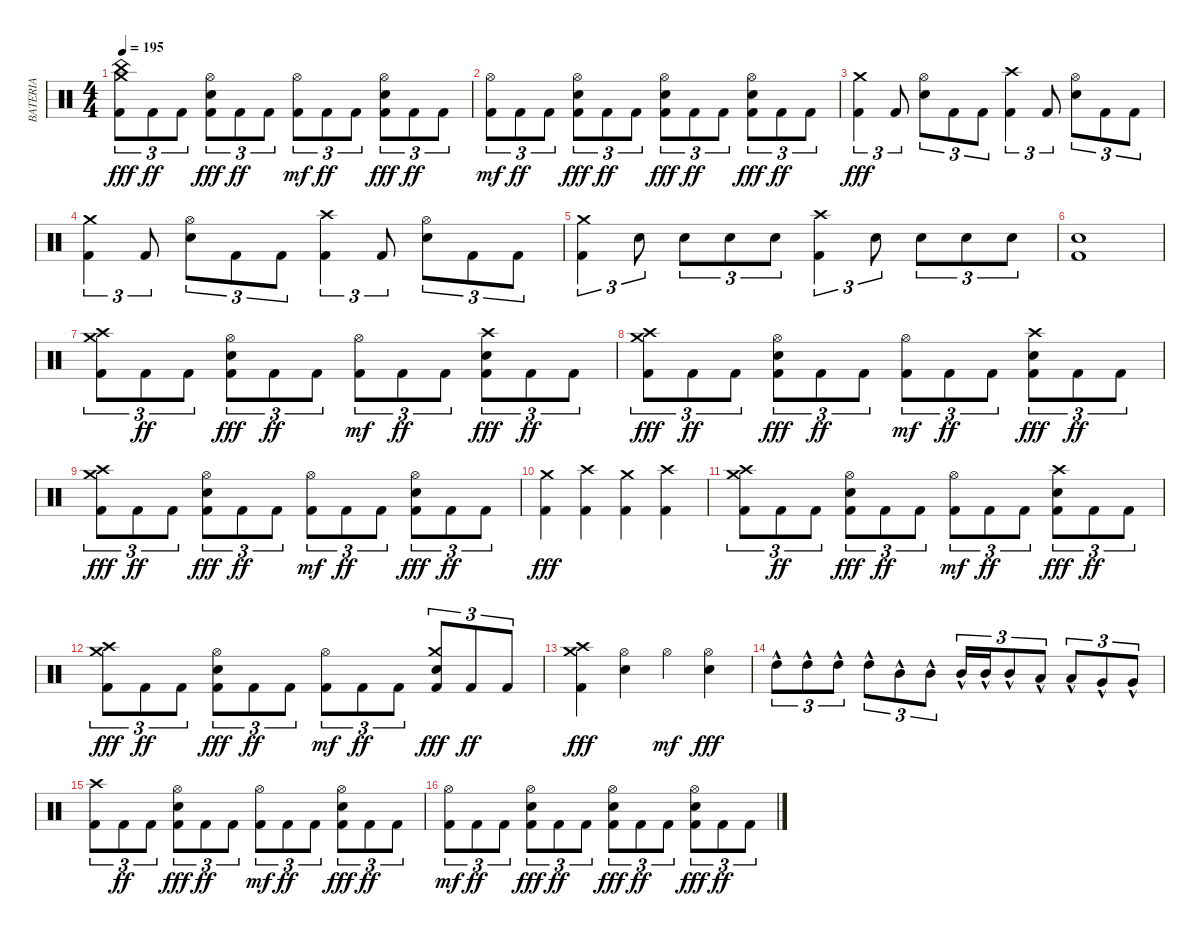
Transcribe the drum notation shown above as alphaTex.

\track ("BATERIA" "BATERIA") {instrument percussion}
\staff
\articulation defaults
\ts (4 4)
\tempo 195
\clef neutral
\ks c
("Kick (hit) 2" "Crash medium (hit)" "China (hit)").8{tu (3 2) dy fff} "Kick (hit) 2".8{tu (3 2) dy ff} "Kick (hit) 2".8{tu (3 2)} ("Kick (hit) 2" "Electric Snare (hit)" "Hi-Hat (open)").8{tu (3 2) dy fff} "Kick (hit) 2".8{tu (3 2) dy ff} "Kick (hit) 2".8{tu (3 2)} ("Kick (hit) 2" "Hi-Hat (open)").8{tu (3 2) dy mf} "Kick (hit) 2".8{tu (3 2) dy ff} "Kick (hit) 2".8{tu (3 2)} ("Kick (hit) 2" "Electric Snare (hit)" "Hi-Hat (open)").8{tu (3 2) dy fff} "Kick (hit) 2".8{tu (3 2) dy ff} "Kick (hit) 2".8{tu (3 2)} |
("Kick (hit) 2" "Hi-Hat (open)").8{tu (3 2) dy mf} "Kick (hit) 2".8{tu (3 2) dy ff} "Kick (hit) 2".8{tu (3 2)} ("Kick (hit) 2" "Electric Snare (hit)" "Hi-Hat (open)").8{tu (3 2) dy fff} "Kick (hit) 2".8{tu (3 2) dy ff} "Kick (hit) 2".8{tu (3 2)} ("Kick (hit) 2" "Electric Snare (hit)" "Hi-Hat (open)").8{tu (3 2) dy fff} "Kick (hit) 2".8{tu (3 2) dy ff} "Kick (hit) 2".8{tu (3 2)} ("Kick (hit) 2" "Electric Snare (hit)" "Hi-Hat (open)").8{tu (3 2) dy fff} "Kick (hit) 2".8{tu (3 2) dy ff} "Kick (hit) 2".8{tu (3 2)} |
("Kick (hit) 2" "Crash medium (hit)").4{tu (3 2) dy fff} "Kick (hit) 2".8{tu (3 2)} ("Electric Snare (hit)" "Hi-Hat (open)").8{tu (3 2)} "Kick (hit) 2".8{tu (3 2)} "Kick (hit) 2".8{tu (3 2)} ("Kick (hit) 2" "Crash high (hit)").4{tu (3 2)} "Kick (hit) 2".8{tu (3 2)} ("Electric Snare (hit)" "Hi-Hat (open)").8{tu (3 2)} "Kick (hit) 2".8{tu (3 2)} "Kick (hit) 2".8{tu (3 2)} |
("Kick (hit) 2" "Crash medium (hit)").4{tu (3 2)} "Kick (hit) 2".8{tu (3 2)} ("Electric Snare (hit)" "Hi-Hat (open)").8{tu (3 2)} "Kick (hit) 2".8{tu (3 2)} "Kick (hit) 2".8{tu (3 2)} ("Kick (hit) 2" "Crash high (hit)").4{tu (3 2)} "Kick (hit) 2".8{tu (3 2)} ("Electric Snare (hit)" "Hi-Hat (open)").8{tu (3 2)} "Kick (hit) 2".8{tu (3 2)} "Kick (hit) 2".8{tu (3 2)} |
("Kick (hit) 2" "Crash medium (hit)").4{tu (3 2)} "Electric Snare (hit)".8{tu (3 2)} "Electric Snare (hit)".8{tu (3 2)} "Electric Snare (hit)".8{tu (3 2)} "Electric Snare (hit)".8{tu (3 2)} ("Kick (hit) 2" "Crash high (hit)").4{tu (3 2)} "Electric Snare (hit)".8{tu (3 2)} "Electric Snare (hit)".8{tu (3 2)} "Electric Snare (hit)".8{tu (3 2)} "Electric Snare (hit)".8{tu (3 2)} |
("Kick (hit) 2" "Electric Snare (hit)").1 |
("Kick (hit) 2" "Crash medium (hit)" "Crash high (hit)").8{tu (3 2)} "Kick (hit) 2".8{tu (3 2) dy ff} "Kick (hit) 2".8{tu (3 2)} ("Kick (hit) 2" "Electric Snare (hit)" "Hi-Hat (open)").8{tu (3 2) dy fff} "Kick (hit) 2".8{tu (3 2) dy ff} "Kick (hit) 2".8{tu (3 2)} ("Kick (hit) 2" "Hi-Hat (open)").8{tu (3 2) dy mf} "Kick (hit) 2".8{tu (3 2) dy ff} "Kick (hit) 2".8{tu (3 2)} ("Kick (hit) 2" "Electric Snare (hit)" "Crash high (hit)").8{tu (3 2) dy fff} "Kick (hit) 2".8{tu (3 2) dy ff} "Kick (hit) 2".8{tu (3 2)} |
("Kick (hit) 2" "Crash medium (hit)" "Crash high (hit)").8{tu (3 2) dy fff} "Kick (hit) 2".8{tu (3 2) dy ff} "Kick (hit) 2".8{tu (3 2)} ("Kick (hit) 2" "Electric Snare (hit)" "Hi-Hat (open)").8{tu (3 2) dy fff} "Kick (hit) 2".8{tu (3 2) dy ff} "Kick (hit) 2".8{tu (3 2)} ("Kick (hit) 2" "Hi-Hat (open)").8{tu (3 2) dy mf} "Kick (hit) 2".8{tu (3 2) dy ff} "Kick (hit) 2".8{tu (3 2)} ("Kick (hit) 2" "Electric Snare (hit)" "Crash high (hit)").8{tu (3 2) dy fff} "Kick (hit) 2".8{tu (3 2) dy ff} "Kick (hit) 2".8{tu (3 2)} |
("Kick (hit) 2" "Crash medium (hit)" "Crash high (hit)").8{tu (3 2) dy fff} "Kick (hit) 2".8{tu (3 2) dy ff} "Kick (hit) 2".8{tu (3 2)} ("Kick (hit) 2" "Electric Snare (hit)" "Hi-Hat (open)").8{tu (3 2) dy fff} "Kick (hit) 2".8{tu (3 2) dy ff} "Kick (hit) 2".8{tu (3 2)} ("Kick (hit) 2" "Hi-Hat (open)").8{tu (3 2) dy mf} "Kick (hit) 2".8{tu (3 2) dy ff} "Kick (hit) 2".8{tu (3 2)} ("Kick (hit) 2" "Electric Snare (hit)" "Hi-Hat (open)").8{tu (3 2) dy fff} "Kick (hit) 2".8{tu (3 2) dy ff} "Kick (hit) 2".8{tu (3 2)} |
("Kick (hit) 2" "Crash medium (hit)").4{dy fff} ("Kick (hit) 2" "Crash high (hit)").4 ("Kick (hit) 2" "Crash medium (hit)").4 ("Kick (hit) 2" "Crash high (hit)").4 |
("Kick (hit) 2" "Crash medium (hit)" "Crash high (hit)").8{tu (3 2)} "Kick (hit) 2".8{tu (3 2) dy ff} "Kick (hit) 2".8{tu (3 2)} ("Kick (hit) 2" "Electric Snare (hit)" "Hi-Hat (open)").8{tu (3 2) dy fff} "Kick (hit) 2".8{tu (3 2) dy ff} "Kick (hit) 2".8{tu (3 2)} ("Kick (hit) 2" "Hi-Hat (open)").8{tu (3 2) dy mf} "Kick (hit) 2".8{tu (3 2) dy ff} "Kick (hit) 2".8{tu (3 2)} ("Kick (hit) 2" "Electric Snare (hit)" "Crash high (hit)").8{tu (3 2) dy fff} "Kick (hit) 2".8{tu (3 2) dy ff} "Kick (hit) 2".8{tu (3 2)} |
("Kick (hit) 2" "Crash medium (hit)" "Crash high (hit)").8{tu (3 2) dy fff} "Kick (hit) 2".8{tu (3 2) dy ff} "Kick (hit) 2".8{tu (3 2)} ("Kick (hit) 2" "Electric Snare (hit)" "Hi-Hat (open)").8{tu (3 2) dy fff} "Kick (hit) 2".8{tu (3 2) dy ff} "Kick (hit) 2".8{tu (3 2)} ("Kick (hit) 2" "Hi-Hat (open)").8{tu (3 2) dy mf} "Kick (hit) 2".8{tu (3 2) dy ff} "Kick (hit) 2".8{tu (3 2)} ("Kick (hit) 2" "Electric Snare (hit)" "Crash medium (hit)").8{tu (3 2) dy fff} "Kick (hit) 2".8{tu (3 2) dy ff} "Kick (hit) 2".8{tu (3 2)} |
("Kick (hit) 2" "Crash high (hit)" "Crash medium (hit)").4{dy fff} ("Electric Snare (hit)" "Hi-Hat (open)").4 "Hi-Hat (open)".4{dy mf} ("Electric Snare (hit)" "Hi-Hat (open)").4{dy fff} |
"High Tom (hit)"{hac}.8{tu (3 2)} "High Tom (hit)"{hac}.8{tu (3 2)} "High Tom (hit)"{hac}.8{tu (3 2)} "High Tom (hit)"{hac}.8{tu (3 2)} "Mid Tom (hit)"{hac}.8{tu (3 2)} "Mid Tom (hit)"{hac}.8{tu (3 2)} "Mid Tom (hit)"{hac}.16{tu (3 2)} "Mid Tom (hit)"{hac}.16{tu (3 2)} "Mid Tom (hit)"{hac}.8{tu (3 2)} "Low Tom (hit)"{hac}.8{tu (3 2)} "Low Tom (hit)"{hac}.8{tu (3 2)} "Very Low Tom (hit)"{hac}.8{tu (3 2)} "Very Low Tom (hit)"{hac}.8{tu (3 2)} |
("Kick (hit) 2" "Crash high (hit)").8{tu (3 2)} "Kick (hit) 2".8{tu (3 2) dy ff} "Kick (hit) 2".8{tu (3 2)} ("Kick (hit) 2" "Electric Snare (hit)" "Hi-Hat (open)").8{tu (3 2) dy fff} "Kick (hit) 2".8{tu (3 2) dy ff} "Kick (hit) 2".8{tu (3 2)} ("Kick (hit) 2" "Hi-Hat (open)").8{tu (3 2) dy mf} "Kick (hit) 2".8{tu (3 2) dy ff} "Kick (hit) 2".8{tu (3 2)} ("Kick (hit) 2" "Electric Snare (hit)" "Hi-Hat (open)").8{tu (3 2) dy fff} "Kick (hit) 2".8{tu (3 2) dy ff} "Kick (hit) 2".8{tu (3 2)} |
("Kick (hit) 2" "Hi-Hat (open)").8{tu (3 2) dy mf} "Kick (hit) 2".8{tu (3 2) dy ff} "Kick (hit) 2".8{tu (3 2)} ("Kick (hit) 2" "Electric Snare (hit)" "Hi-Hat (open)").8{tu (3 2) dy fff} "Kick (hit) 2".8{tu (3 2) dy ff} "Kick (hit) 2".8{tu (3 2)} ("Kick (hit) 2" "Electric Snare (hit)" "Hi-Hat (open)").8{tu (3 2) dy fff} "Kick (hit) 2".8{tu (3 2) dy ff} "Kick (hit) 2".8{tu (3 2)} ("Kick (hit) 2" "Electric Snare (hit)" "Hi-Hat (open)").8{tu (3 2) dy fff} "Kick (hit) 2".8{tu (3 2) dy ff} "Kick (hit) 2".8{tu (3 2)}
